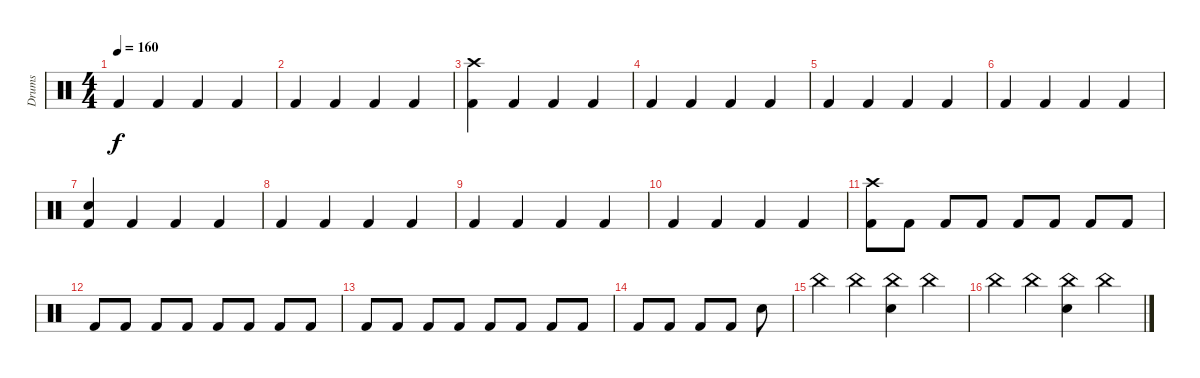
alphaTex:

\track ("Drums" "Drums") {instrument percussion}
\staff {score}
\articulation defaults
\ts (4 4)
\tempo 160
\clef neutral
\ks c "Kick (hit) 2".4{dy f} "Kick (hit) 2".4 "Kick (hit) 2".4 "Kick (hit) 2".4
|
"Kick (hit) 2".4 "Kick (hit) 2".4 "Kick (hit) 2".4 "Kick (hit) 2".4 |
("Kick (hit) 2" "Crash high (hit)").4 "Kick (hit) 2".4 "Kick (hit) 2".4 "Kick (hit) 2".4 |
"Kick (hit) 2".4 "Kick (hit) 2".4 "Kick (hit) 2".4 "Kick (hit) 2".4 |
"Kick (hit) 2".4 "Kick (hit) 2".4 "Kick (hit) 2".4 "Kick (hit) 2".4 |
"Kick (hit) 2".4 "Kick (hit) 2".4 "Kick (hit) 2".4 "Kick (hit) 2".4 |
("Kick (hit) 2" "Electric Snare (hit)").4 "Kick (hit) 2".4 "Kick (hit) 2".4 "Kick (hit) 2".4 |
"Kick (hit) 2".4 "Kick (hit) 2".4 "Kick (hit) 2".4 "Kick (hit) 2".4 |
"Kick (hit) 2".4 "Kick (hit) 2".4 "Kick (hit) 2".4 "Kick (hit) 2".4 |
"Kick (hit) 2".4 "Kick (hit) 2".4 "Kick (hit) 2".4 "Kick (hit) 2".4 |
("Kick (hit) 2" "Crash high (hit)").8 "Kick (hit) 2".8 "Kick (hit) 2".8 "Kick (hit) 2".8 "Kick (hit) 2".8 "Kick (hit) 2".8 "Kick (hit) 2".8 "Kick (hit) 2".8 |
"Kick (hit) 2".8 "Kick (hit) 2".8 "Kick (hit) 2".8 "Kick (hit) 2".8 "Kick (hit) 2".8 "Kick (hit) 2".8 "Kick (hit) 2".8 "Kick (hit) 2".8 |
"Kick (hit) 2".8 "Kick (hit) 2".8 "Kick (hit) 2".8 "Kick (hit) 2".8 "Kick (hit) 2".8 "Kick (hit) 2".8 "Kick (hit) 2".8 "Kick (hit) 2".8 |
"Kick (hit) 2".8 "Kick (hit) 2".8 "Kick (hit) 2".8 "Kick (hit) 2".8 "Electric Snare (hit)".8 |
"China (hit)".4 "China (hit)".4 ("China (hit)" "Electric Snare (hit)").4 "China (hit)".4 |
"China (hit)".4 "China (hit)".4 ("China (hit)" "Electric Snare (hit)").4 "China (hit)".4
